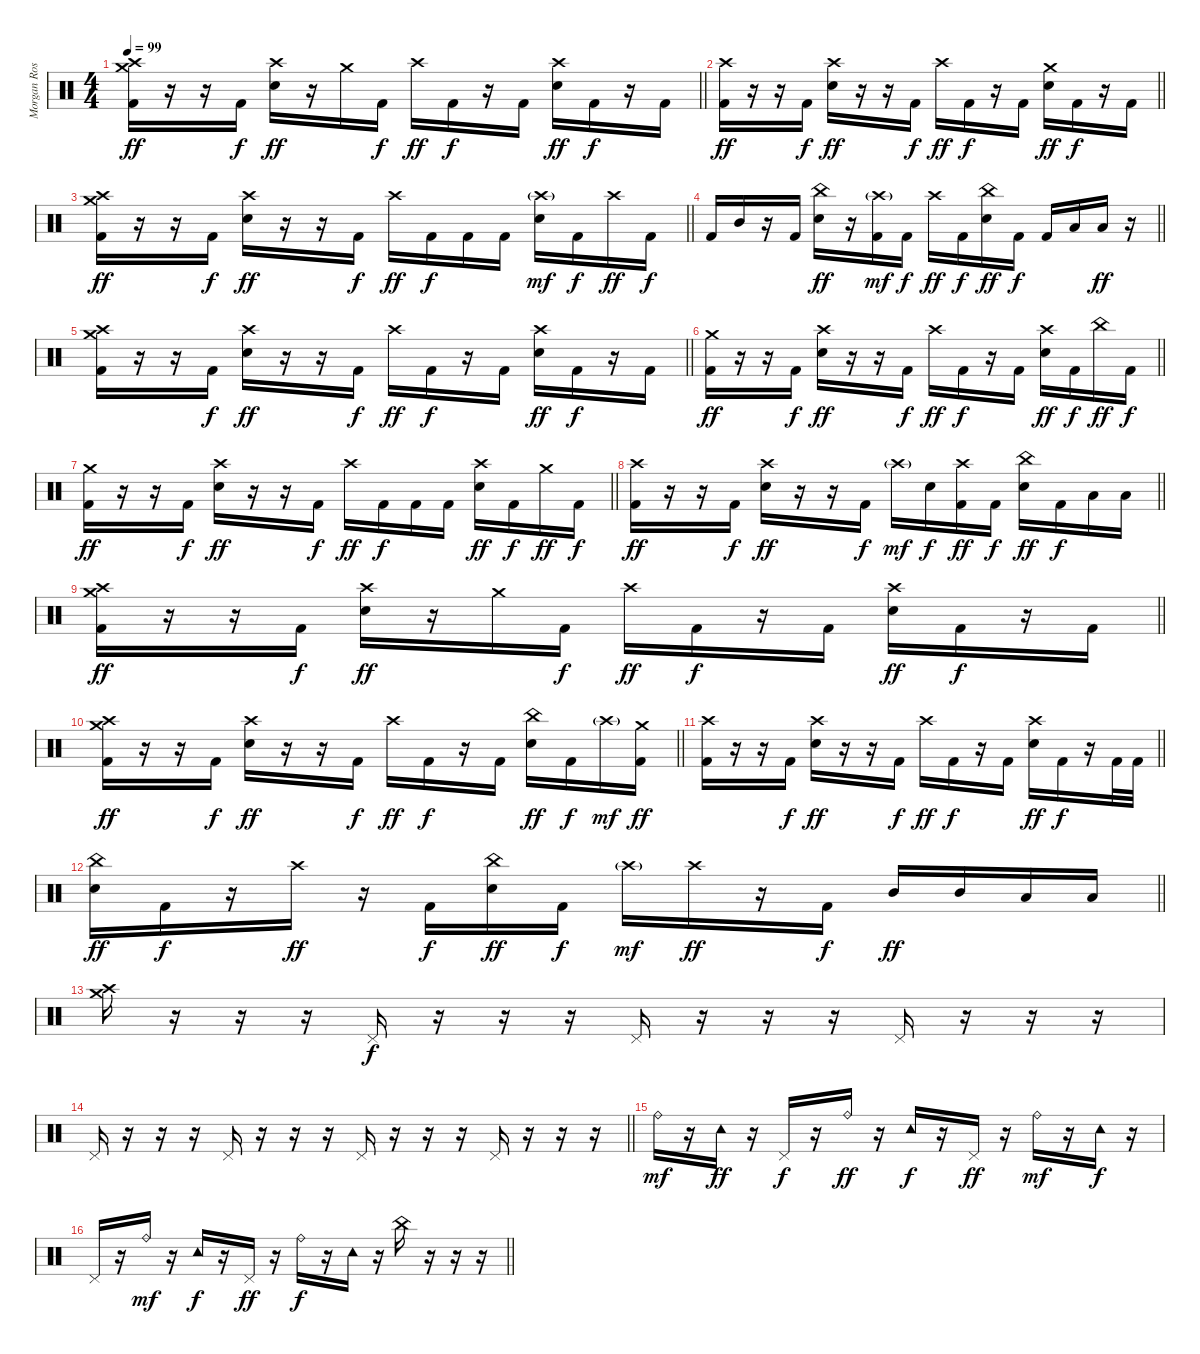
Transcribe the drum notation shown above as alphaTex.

\track ("Morgan Rose" "Morgan Ros") {instrument percussion}
\staff {score}
\articulation defaults
\ts (4 4)
\tempo 99
\clef neutral
\barLineRight lightlight
\ks c
("Crash medium (hit)" "Crash high (hit)" "Kick (hit) 2").16{dy ff} r.16 r.16 "Kick (hit) 2".16{dy f} ("Crash high (hit)" "Snare (hit) 2").16{dy ff} r.16 "Crash medium (hit)".16 "Kick (hit) 2".16{dy f} "Crash high (hit)".16{dy ff} "Kick (hit) 2".16{dy f} r.16 "Kick (hit) 2".16 ("Crash high (hit)" "Snare (hit) 2").16{dy ff} "Kick (hit) 2".16{dy f} r.16 "Kick (hit) 2".16 |
\barLineRight lightlight
("Crash high (hit)" "Kick (hit) 2").16{dy ff} r.16 r.16 "Kick (hit) 2".16{dy f} ("Crash high (hit)" "Snare (hit) 2").16{dy ff} r.16 r.16 "Kick (hit) 2".16{dy f} "Crash high (hit)".16{dy ff} "Kick (hit) 2".16{dy f} r.16 "Kick (hit) 2".16 ("Crash medium (hit)" "Snare (hit) 2").16{dy ff} "Kick (hit) 2".16{dy f} r.16 "Kick (hit) 2".16 |
\barLineRight lightlight
("Crash medium (hit)" "Crash high (hit)" "Kick (hit) 2").16{dy ff} r.16 r.16 "Kick (hit) 2".16{dy f} ("Crash high (hit)" "Snare (hit) 2").16{dy ff} r.16 r.16 "Kick (hit) 2".16{dy f} "Crash high (hit)".16{dy ff} "Kick (hit) 2".16{dy f} "Kick (hit) 2".16 "Kick (hit) 2".16 ("Crash high (hit)"{g} "Snare (hit) 2").16{dy mf} "Kick (hit) 2".16{dy f} "Crash high (hit)".16{dy ff} "Kick (hit) 2".16{dy f} |
\barLineRight lightlight "Kick (hit) 2".16 "Mid Tom (hit)".16
r.16 "Kick (hit) 2".16 ("China (hit)" "Snare (hit) 2").16{dy ff} r.16 ("Crash high (hit)"{g} "Kick (hit) 2").16{dy mf} "Kick (hit) 2".16{dy f} "Crash high (hit)".16{dy ff} "Kick (hit) 2".16{dy f} ("China (hit)" "Snare (hit) 2").16{dy ff} "Kick (hit) 2".16{dy f} "Kick (hit) 2".16 "Low Tom (hit)".16 "Low Tom (hit)".16{dy ff} r.16 |
\barLineRight lightlight
("Crash medium (hit)" "Crash high (hit)" "Kick (hit) 2").16 r.16 r.16 "Kick (hit) 2".16{dy f} ("Crash high (hit)" "Snare (hit) 2").16{dy ff} r.16 r.16 "Kick (hit) 2".16{dy f} "Crash high (hit)".16{dy ff} "Kick (hit) 2".16{dy f} r.16 "Kick (hit) 2".16 ("Crash high (hit)" "Snare (hit) 2").16{dy ff} "Kick (hit) 2".16{dy f} r.16 "Kick (hit) 2".16 |
\barLineRight lightlight
("Crash medium (hit)" "Kick (hit) 2").16{dy ff} r.16 r.16 "Kick (hit) 2".16{dy f} ("Crash high (hit)" "Snare (hit) 2").16{dy ff} r.16 r.16 "Kick (hit) 2".16{dy f} "Crash high (hit)".16{dy ff} "Kick (hit) 2".16{dy f} r.16 "Kick (hit) 2".16 ("Crash high (hit)" "Snare (hit) 2").16{dy ff} "Kick (hit) 2".16{dy f} "China (hit)".16{dy ff} "Kick (hit) 2".16{dy f} |
\barLineRight lightlight
("Crash medium (hit)" "Kick (hit) 2").16{dy ff} r.16 r.16 "Kick (hit) 2".16{dy f} ("Crash high (hit)" "Snare (hit) 2").16{dy ff} r.16 r.16 "Kick (hit) 2".16{dy f} "Crash high (hit)".16{dy ff} "Kick (hit) 2".16{dy f} "Kick (hit) 2".16 "Kick (hit) 2".16 ("Crash high (hit)" "Snare (hit) 2").16{dy ff} "Kick (hit) 2".16{dy f} "Crash medium (hit)".16{dy ff} "Kick (hit) 2".16{dy f} |
\barLineRight lightlight
("Crash high (hit)" "Kick (hit) 2").16{dy ff} r.16 r.16 "Kick (hit) 2".16{dy f} ("Crash high (hit)" "Snare (hit) 2").16{dy ff} r.16 r.16 "Kick (hit) 2".16{dy f} "Crash high (hit)"{g}.16{dy mf} "Snare (hit) 2".16{dy f} ("Crash high (hit)" "Kick (hit) 2").16{dy ff} "Kick (hit) 2".16{dy f} ("China (hit)" "Snare (hit) 2").16{dy ff} "Kick (hit) 2".16{dy f} "Low Tom (hit)".16 "Low Tom (hit)".16 |
\barLineRight lightlight
("Crash medium (hit)" "Crash high (hit)" "Kick (hit) 2").16{dy ff} r.16 r.16 "Kick (hit) 2".16{dy f} ("Crash high (hit)" "Snare (hit) 2").16{dy ff} r.16 "Crash medium (hit)".16 "Kick (hit) 2".16{dy f} "Crash high (hit)".16{dy ff} "Kick (hit) 2".16{dy f} r.16 "Kick (hit) 2".16 ("Crash high (hit)" "Snare (hit) 2").16{dy ff} "Kick (hit) 2".16{dy f} r.16 "Kick (hit) 2".16 |
\barLineRight lightlight
("Crash medium (hit)" "Crash high (hit)" "Kick (hit) 2").16{dy ff} r.16 r.16 "Kick (hit) 2".16{dy f} ("Crash high (hit)" "Snare (hit) 2").16{dy ff} r.16 r.16 "Kick (hit) 2".16{dy f} "Crash high (hit)".16{dy ff} "Kick (hit) 2".16{dy f} r.16 "Kick (hit) 2".16 ("China (hit)" "Snare (hit) 2").16{dy ff} "Kick (hit) 2".16{dy f} "Crash high (hit)"{g}.16{dy mf} ("Crash medium (hit)" "Kick (hit) 2").16{dy ff} |
\barLineRight lightlight
("Crash high (hit)" "Kick (hit) 2").16 r.16 r.16 "Kick (hit) 2".16{dy f} ("Crash high (hit)" "Snare (hit) 2").16{dy ff} r.16 r.16 "Kick (hit) 2".16{dy f} "Crash high (hit)".16{dy ff} "Kick (hit) 2".16{dy f} r.16 "Kick (hit) 2".16 ("Crash high (hit)" "Snare (hit) 2").16{dy ff} "Kick (hit) 2".16{dy f} r.16 "Kick (hit) 2".32 "Kick (hit) 2".32 |
\barLineRight lightlight
("China (hit)" "Snare (hit) 2").16{dy ff} "Kick (hit) 2".16{dy f} r.16 "Crash high (hit)".16{dy ff} r.16 "Kick (hit) 2".16{dy f} ("China (hit)" "Snare (hit) 2").16{dy ff} "Kick (hit) 2".16{dy f} "Crash high (hit)"{g}.16{dy mf} "Crash high (hit)".16{dy ff} r.16 "Kick (hit) 2".16{dy f} "Mid Tom (hit)".16{dy ff} "Mid Tom (hit)".16 "Low Tom (hit)".16 "Low Tom (hit)".16 |
("Crash medium (hit)" "Crash high (hit)").16 r.16 r.16 r.16 "Pedal Hi-Hat (hit)".16{dy f} r.16 r.16 r.16 "Pedal Hi-Hat (hit)".16 r.16 r.16 r.16 "Pedal Hi-Hat (hit)".16 r.16 r.16 r.16 |
\barLineRight lightlight "Pedal Hi-Hat (hit)".16
r.16 r.16 r.16 "Pedal Hi-Hat (hit)".16 r.16 r.16 r.16 "Pedal Hi-Hat (hit)".16 r.16 r.16 r.16 "Pedal Hi-Hat (hit)".16 r.16 r.16 r.16 |
"Ride (bell)".16{dy mf} r.16 "Tambourine (hit)".16{dy ff} r.16 "Pedal Hi-Hat (hit)".16{dy f} r.16 "Ride (bell)".16{dy ff} r.16 "Tambourine (hit)".16{dy f} r.16 "Pedal Hi-Hat (hit)".16{dy ff} r.16 "Ride (bell)".16{dy mf} r.16 "Tambourine (hit)".16{dy f} r.16 |
\barLineRight lightlight "Pedal Hi-Hat (hit)".16
r.16 "Ride (bell)".16{dy mf} r.16 "Tambourine (hit)".16{dy f} r.16 "Pedal Hi-Hat (hit)".16{dy ff} r.16 "Ride (bell)".16{dy f} r.16 "Tambourine (hit)".16 r.16 "China (hit)".16 r.16 r.16 r.16
